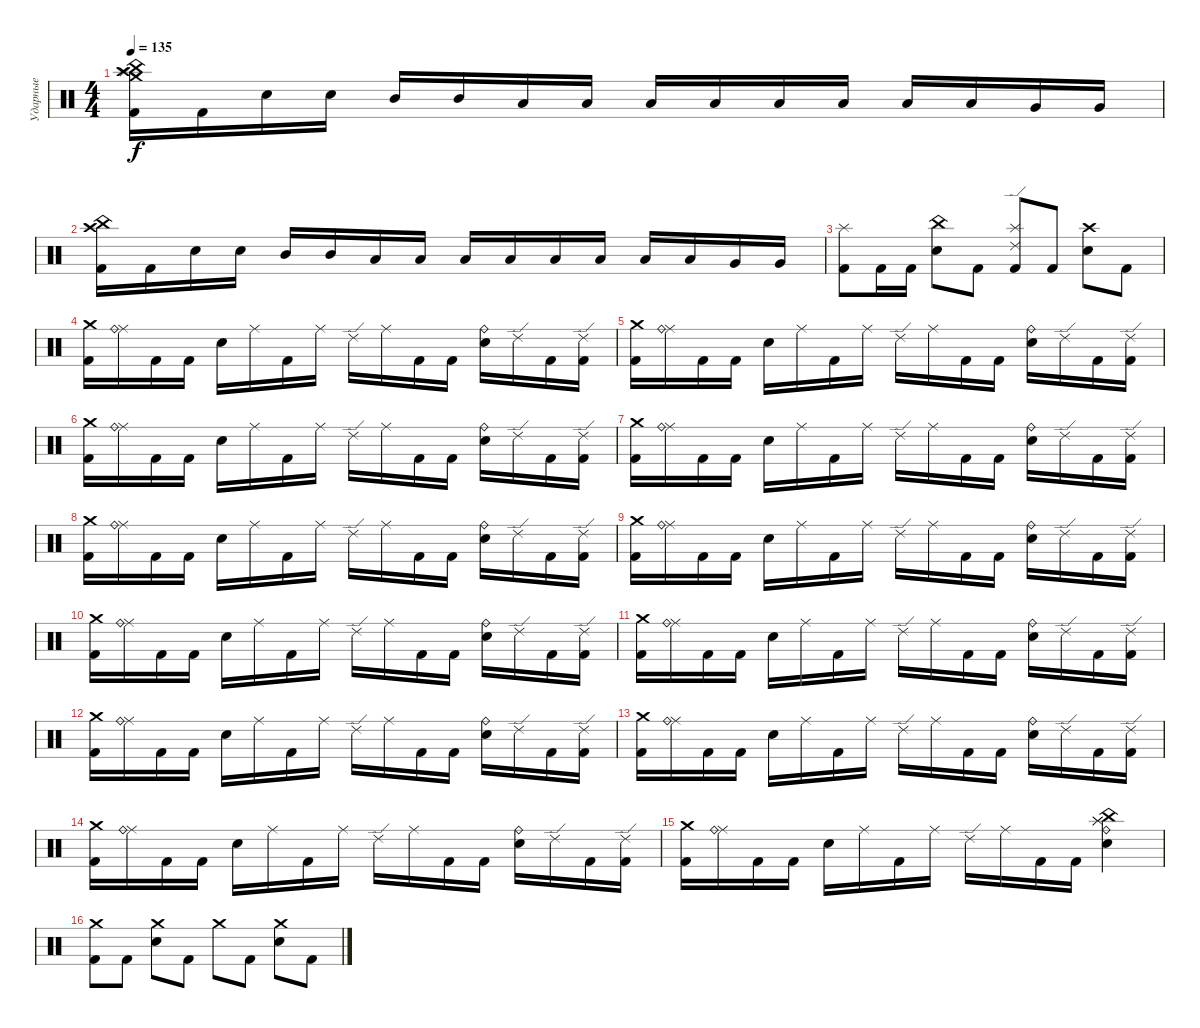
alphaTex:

\track ("Ударные" "Ударные") {instrument percussion}
\staff {score}
\articulation defaults
\ts (4 4)
\tempo 135
\clef neutral
\ks c
("Kick (hit) 2" "China (hit)" "Crash high (hit)" "Crash medium (hit)" "Splash (hit)").16{dy f} "Kick (hit) 2".16 "Snare (hit) 2".16 "Snare (hit) 2".16 "Mid Tom (hit)".16 "Mid Tom (hit)".16 "Low Tom (hit)".16 "Low Tom (hit)".16 "Low Floor Tom (hit)".16 "Low Floor Tom (hit)".16 "Low Tom (hit)".16 "Low Tom (hit)".16 "Low Floor Tom (hit)".16 "Low Floor Tom (hit)".16 "Very Low Tom (hit)".16 "Very Low Tom (hit)".16 |
("Kick (hit) 2" "China (hit)" "Crash high (hit)").16 "Kick (hit) 2".16 "Snare (hit) 2".16 "Snare (hit) 2".16 "Mid Tom (hit)".16 "Mid Tom (hit)".16 "Low Tom (hit)".16 "Low Tom (hit)".16 "Low Floor Tom (hit)".16 "Low Floor Tom (hit)".16 "Low Tom (hit)".16 "Low Tom (hit)".16 "Low Floor Tom (hit)".16 "Low Floor Tom (hit)".16 "Very Low Tom (hit)".16 "Very Low Tom (hit)".16 |
("Kick (hit) 2" "Splash (hit)").8 "Kick (hit) 2".16 "Kick (hit) 2".16 ("Snare (hit) 2" "China (hit)").8 "Kick (hit) 2".8 ("Kick (hit) 2" "Ride (edge) 2" "Splash (hit)").8 "Kick (hit) 2".8 ("Snare (hit) 2" "Crash high (hit)").8 "Kick (hit) 2".8 |
("Kick (hit) 2" "Crash medium (hit)").16 ("Ride (middle)" "Ride (bell)").16 "Kick (hit) 2".16 "Kick (hit) 2".16 "Snare (hit) 2".16 "Ride (middle)".16 "Kick (hit) 2".16 "Ride (middle)".16 "Ride (edge) 2".16 "Ride (middle)".16 "Kick (hit) 2".16 "Kick (hit) 2".16 ("Snare (hit) 2" "Ride (bell)").16 "Ride (edge) 2".16 "Kick (hit) 2".16 ("Ride (edge) 2" "Kick (hit) 2").16 |
("Kick (hit) 2" "Crash medium (hit)").16 ("Ride (middle)" "Ride (bell)").16 "Kick (hit) 2".16 "Kick (hit) 2".16 "Snare (hit) 2".16 "Ride (middle)".16 "Kick (hit) 2".16 "Ride (middle)".16 "Ride (edge) 2".16 "Ride (middle)".16 "Kick (hit) 2".16 "Kick (hit) 2".16 ("Snare (hit) 2" "Ride (bell)").16 "Ride (edge) 2".16 "Kick (hit) 2".16 ("Ride (edge) 2" "Kick (hit) 2").16 |
("Kick (hit) 2" "Crash medium (hit)").16 ("Ride (middle)" "Ride (bell)").16 "Kick (hit) 2".16 "Kick (hit) 2".16 "Snare (hit) 2".16 "Ride (middle)".16 "Kick (hit) 2".16 "Ride (middle)".16 "Ride (edge) 2".16 "Ride (middle)".16 "Kick (hit) 2".16 "Kick (hit) 2".16 ("Snare (hit) 2" "Ride (bell)").16 "Ride (edge) 2".16 "Kick (hit) 2".16 ("Ride (edge) 2" "Kick (hit) 2").16 |
("Kick (hit) 2" "Crash medium (hit)").16 ("Ride (middle)" "Ride (bell)").16 "Kick (hit) 2".16 "Kick (hit) 2".16 "Snare (hit) 2".16 "Ride (middle)".16 "Kick (hit) 2".16 "Ride (middle)".16 "Ride (edge) 2".16 "Ride (middle)".16 "Kick (hit) 2".16 "Kick (hit) 2".16 ("Snare (hit) 2" "Ride (bell)").16 "Ride (edge) 2".16 "Kick (hit) 2".16 ("Ride (edge) 2" "Kick (hit) 2").16 |
("Kick (hit) 2" "Crash medium (hit)").16 ("Ride (middle)" "Ride (bell)").16 "Kick (hit) 2".16 "Kick (hit) 2".16 "Snare (hit) 2".16 "Ride (middle)".16 "Kick (hit) 2".16 "Ride (middle)".16 "Ride (edge) 2".16 "Ride (middle)".16 "Kick (hit) 2".16 "Kick (hit) 2".16 ("Snare (hit) 2" "Ride (bell)").16 "Ride (edge) 2".16 "Kick (hit) 2".16 ("Ride (edge) 2" "Kick (hit) 2").16 |
("Kick (hit) 2" "Crash medium (hit)").16 ("Ride (middle)" "Ride (bell)").16 "Kick (hit) 2".16 "Kick (hit) 2".16 "Snare (hit) 2".16 "Ride (middle)".16 "Kick (hit) 2".16 "Ride (middle)".16 "Ride (edge) 2".16 "Ride (middle)".16 "Kick (hit) 2".16 "Kick (hit) 2".16 ("Snare (hit) 2" "Ride (bell)").16 "Ride (edge) 2".16 "Kick (hit) 2".16 ("Ride (edge) 2" "Kick (hit) 2").16 |
("Kick (hit) 2" "Crash medium (hit)").16 ("Ride (middle)" "Ride (bell)").16 "Kick (hit) 2".16 "Kick (hit) 2".16 "Snare (hit) 2".16 "Ride (middle)".16 "Kick (hit) 2".16 "Ride (middle)".16 "Ride (edge) 2".16 "Ride (middle)".16 "Kick (hit) 2".16 "Kick (hit) 2".16 ("Snare (hit) 2" "Ride (bell)").16 "Ride (edge) 2".16 "Kick (hit) 2".16 ("Ride (edge) 2" "Kick (hit) 2").16 |
("Kick (hit) 2" "Crash medium (hit)").16 ("Ride (middle)" "Ride (bell)").16 "Kick (hit) 2".16 "Kick (hit) 2".16 "Snare (hit) 2".16 "Ride (middle)".16 "Kick (hit) 2".16 "Ride (middle)".16 "Ride (edge) 2".16 "Ride (middle)".16 "Kick (hit) 2".16 "Kick (hit) 2".16 ("Snare (hit) 2" "Ride (bell)").16 "Ride (edge) 2".16 "Kick (hit) 2".16 ("Ride (edge) 2" "Kick (hit) 2").16 |
("Kick (hit) 2" "Crash medium (hit)").16 ("Ride (middle)" "Ride (bell)").16 "Kick (hit) 2".16 "Kick (hit) 2".16 "Snare (hit) 2".16 "Ride (middle)".16 "Kick (hit) 2".16 "Ride (middle)".16 "Ride (edge) 2".16 "Ride (middle)".16 "Kick (hit) 2".16 "Kick (hit) 2".16 ("Snare (hit) 2" "Ride (bell)").16 "Ride (edge) 2".16 "Kick (hit) 2".16 ("Ride (edge) 2" "Kick (hit) 2").16 |
("Kick (hit) 2" "Crash medium (hit)").16 ("Ride (middle)" "Ride (bell)").16 "Kick (hit) 2".16 "Kick (hit) 2".16 "Snare (hit) 2".16 "Ride (middle)".16 "Kick (hit) 2".16 "Ride (middle)".16 "Ride (edge) 2".16 "Ride (middle)".16 "Kick (hit) 2".16 "Kick (hit) 2".16 ("Snare (hit) 2" "Ride (bell)").16 "Ride (edge) 2".16 "Kick (hit) 2".16 ("Ride (edge) 2" "Kick (hit) 2").16 |
("Kick (hit) 2" "Crash medium (hit)").16 ("Ride (middle)" "Ride (bell)").16 "Kick (hit) 2".16 "Kick (hit) 2".16 "Snare (hit) 2".16 "Ride (middle)".16 "Kick (hit) 2".16 "Ride (middle)".16 "Ride (edge) 2".16 "Ride (middle)".16 "Kick (hit) 2".16 "Kick (hit) 2".16 ("Snare (hit) 2" "Ride (bell)").16 "Ride (edge) 2".16 "Kick (hit) 2".16 ("Ride (edge) 2" "Kick (hit) 2").16 |
("Kick (hit) 2" "Crash medium (hit)").16 ("Ride (middle)" "Ride (bell)").16 "Kick (hit) 2".16 "Kick (hit) 2".16 "Snare (hit) 2".16 "Ride (middle)".16 "Kick (hit) 2".16 "Ride (middle)".16 "Ride (edge) 2".16 "Ride (middle)".16 "Kick (hit) 2".16 "Kick (hit) 2".16 ("Snare (hit) 2" "Ride (bell)" "Splash (hit)" "China (hit)" "Splash (hit)").4 |
("Kick (hit) 2" "Crash medium (hit)").8 "Kick (hit) 2".8 ("Snare (hit) 2" "Crash medium (hit)").8 "Kick (hit) 2".8 "Crash medium (hit)".8 "Kick (hit) 2".8 ("Crash medium (hit)" "Snare (hit) 2").8 "Kick (hit) 2".8
